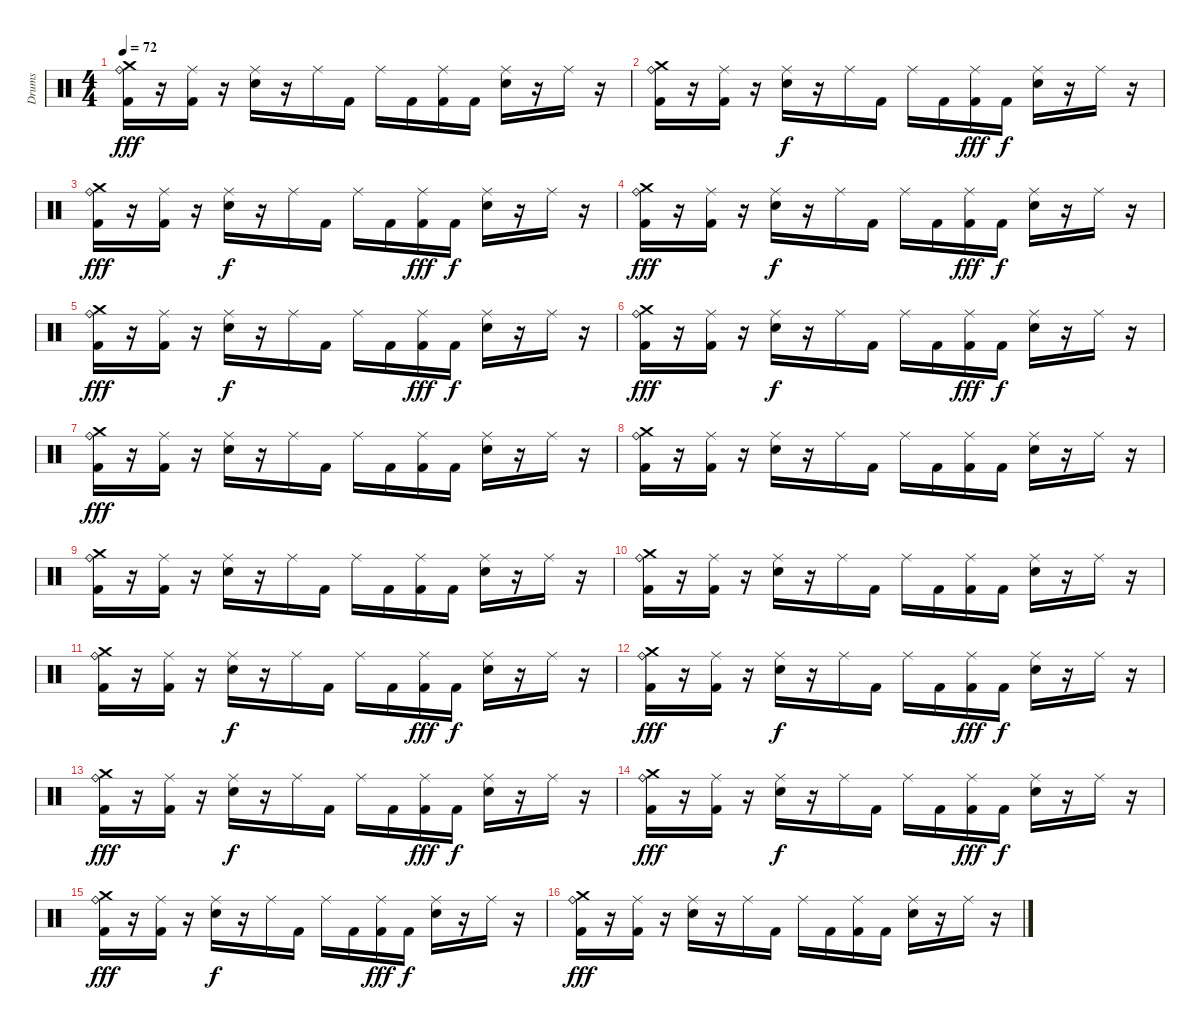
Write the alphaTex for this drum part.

\track ("Drums" "Drums") {instrument percussion}
\staff {score}
\articulation defaults
\ts (4 4)
\tempo 72
\clef neutral
\ks c
("Crash medium (hit)" "Ride (bell)" "Kick (hit) 2").16{dy fff} r.16 ("Ride (middle)" "Kick (hit) 2").16 r.16 ("Ride (middle)" "Snare (hit) 2").16 r.16 "Ride (middle)".16 "Kick (hit) 2".16 "Ride (middle)".16 "Kick (hit) 2".16 ("Ride (middle)" "Kick (hit) 2").16 "Kick (hit) 2".16 ("Ride (middle)" "Snare (hit) 2").16 r.16 "Ride (middle)".16 r.16 |
("Crash medium (hit)" "Ride (bell)" "Kick (hit) 2").16 r.16 ("Ride (middle)" "Kick (hit) 2").16 r.16 ("Ride (middle)" "Snare (hit) 2").16{dy f} r.16 "Ride (middle)".16 "Kick (hit) 2".16 "Ride (middle)".16 "Kick (hit) 2".16 ("Ride (middle)" "Kick (hit) 2").16{dy fff} "Kick (hit) 2".16{dy f} ("Ride (middle)" "Snare (hit) 2").16 r.16 "Ride (middle)".16 r.16 |
("Crash medium (hit)" "Ride (bell)" "Kick (hit) 2").16{dy fff} r.16 ("Ride (middle)" "Kick (hit) 2").16 r.16 ("Ride (middle)" "Snare (hit) 2").16{dy f} r.16 "Ride (middle)".16 "Kick (hit) 2".16 "Ride (middle)".16 "Kick (hit) 2".16 ("Ride (middle)" "Kick (hit) 2").16{dy fff} "Kick (hit) 2".16{dy f} ("Ride (middle)" "Snare (hit) 2").16 r.16 "Ride (middle)".16 r.16 |
("Crash medium (hit)" "Ride (bell)" "Kick (hit) 2").16{dy fff} r.16 ("Ride (middle)" "Kick (hit) 2").16 r.16 ("Ride (middle)" "Snare (hit) 2").16{dy f} r.16 "Ride (middle)".16 "Kick (hit) 2".16 "Ride (middle)".16 "Kick (hit) 2".16 ("Ride (middle)" "Kick (hit) 2").16{dy fff} "Kick (hit) 2".16{dy f} ("Ride (middle)" "Snare (hit) 2").16 r.16 "Ride (middle)".16 r.16 |
("Crash medium (hit)" "Ride (bell)" "Kick (hit) 2").16{dy fff} r.16 ("Ride (middle)" "Kick (hit) 2").16 r.16 ("Ride (middle)" "Snare (hit) 2").16{dy f} r.16 "Ride (middle)".16 "Kick (hit) 2".16 "Ride (middle)".16 "Kick (hit) 2".16 ("Ride (middle)" "Kick (hit) 2").16{dy fff} "Kick (hit) 2".16{dy f} ("Ride (middle)" "Snare (hit) 2").16 r.16 "Ride (middle)".16 r.16 |
("Crash medium (hit)" "Ride (bell)" "Kick (hit) 2").16{dy fff} r.16 ("Ride (middle)" "Kick (hit) 2").16 r.16 ("Ride (middle)" "Snare (hit) 2").16{dy f} r.16 "Ride (middle)".16 "Kick (hit) 2".16 "Ride (middle)".16 "Kick (hit) 2".16 ("Ride (middle)" "Kick (hit) 2").16{dy fff} "Kick (hit) 2".16{dy f} ("Ride (middle)" "Snare (hit) 2").16 r.16 "Ride (middle)".16 r.16 |
("Crash medium (hit)" "Ride (bell)" "Kick (hit) 2").16{dy fff} r.16 ("Ride (middle)" "Kick (hit) 2").16 r.16 ("Ride (middle)" "Snare (hit) 2").16 r.16 "Ride (middle)".16 "Kick (hit) 2".16 "Ride (middle)".16 "Kick (hit) 2".16 ("Ride (middle)" "Kick (hit) 2").16 "Kick (hit) 2".16 ("Ride (middle)" "Snare (hit) 2").16 r.16 "Ride (middle)".16 r.16 |
("Crash medium (hit)" "Ride (bell)" "Kick (hit) 2").16 r.16 ("Ride (middle)" "Kick (hit) 2").16 r.16 ("Ride (middle)" "Snare (hit) 2").16 r.16 "Ride (middle)".16 "Kick (hit) 2".16 "Ride (middle)".16 "Kick (hit) 2".16 ("Ride (middle)" "Kick (hit) 2").16 "Kick (hit) 2".16 ("Ride (middle)" "Snare (hit) 2").16 r.16 "Ride (middle)".16 r.16 |
("Crash medium (hit)" "Ride (bell)" "Kick (hit) 2").16 r.16 ("Ride (middle)" "Kick (hit) 2").16 r.16 ("Ride (middle)" "Snare (hit) 2").16 r.16 "Ride (middle)".16 "Kick (hit) 2".16 "Ride (middle)".16 "Kick (hit) 2".16 ("Ride (middle)" "Kick (hit) 2").16 "Kick (hit) 2".16 ("Ride (middle)" "Snare (hit) 2").16 r.16 "Ride (middle)".16 r.16 |
("Crash medium (hit)" "Ride (bell)" "Kick (hit) 2").16 r.16 ("Ride (middle)" "Kick (hit) 2").16 r.16 ("Ride (middle)" "Snare (hit) 2").16 r.16 "Ride (middle)".16 "Kick (hit) 2".16 "Ride (middle)".16 "Kick (hit) 2".16 ("Ride (middle)" "Kick (hit) 2").16 "Kick (hit) 2".16 ("Ride (middle)" "Snare (hit) 2").16 r.16 "Ride (middle)".16 r.16 |
("Crash medium (hit)" "Ride (bell)" "Kick (hit) 2").16 r.16 ("Ride (middle)" "Kick (hit) 2").16 r.16 ("Ride (middle)" "Snare (hit) 2").16{dy f} r.16 "Ride (middle)".16 "Kick (hit) 2".16 "Ride (middle)".16 "Kick (hit) 2".16 ("Ride (middle)" "Kick (hit) 2").16{dy fff} "Kick (hit) 2".16{dy f} ("Ride (middle)" "Snare (hit) 2").16 r.16 "Ride (middle)".16 r.16 |
("Crash medium (hit)" "Ride (bell)" "Kick (hit) 2").16{dy fff} r.16 ("Ride (middle)" "Kick (hit) 2").16 r.16 ("Ride (middle)" "Snare (hit) 2").16{dy f} r.16 "Ride (middle)".16 "Kick (hit) 2".16 "Ride (middle)".16 "Kick (hit) 2".16 ("Ride (middle)" "Kick (hit) 2").16{dy fff} "Kick (hit) 2".16{dy f} ("Ride (middle)" "Snare (hit) 2").16 r.16 "Ride (middle)".16 r.16 |
("Crash medium (hit)" "Ride (bell)" "Kick (hit) 2").16{dy fff} r.16 ("Ride (middle)" "Kick (hit) 2").16 r.16 ("Ride (middle)" "Snare (hit) 2").16{dy f} r.16 "Ride (middle)".16 "Kick (hit) 2".16 "Ride (middle)".16 "Kick (hit) 2".16 ("Ride (middle)" "Kick (hit) 2").16{dy fff} "Kick (hit) 2".16{dy f} ("Ride (middle)" "Snare (hit) 2").16 r.16 "Ride (middle)".16 r.16 |
("Crash medium (hit)" "Ride (bell)" "Kick (hit) 2").16{dy fff} r.16 ("Ride (middle)" "Kick (hit) 2").16 r.16 ("Ride (middle)" "Snare (hit) 2").16{dy f} r.16 "Ride (middle)".16 "Kick (hit) 2".16 "Ride (middle)".16 "Kick (hit) 2".16 ("Ride (middle)" "Kick (hit) 2").16{dy fff} "Kick (hit) 2".16{dy f} ("Ride (middle)" "Snare (hit) 2").16 r.16 "Ride (middle)".16 r.16 |
("Crash medium (hit)" "Ride (bell)" "Kick (hit) 2").16{dy fff} r.16 ("Ride (middle)" "Kick (hit) 2").16 r.16 ("Ride (middle)" "Snare (hit) 2").16{dy f} r.16 "Ride (middle)".16 "Kick (hit) 2".16 "Ride (middle)".16 "Kick (hit) 2".16 ("Ride (middle)" "Kick (hit) 2").16{dy fff} "Kick (hit) 2".16{dy f} ("Ride (middle)" "Snare (hit) 2").16 r.16 "Ride (middle)".16 r.16 |
("Crash medium (hit)" "Ride (bell)" "Kick (hit) 2").16{dy fff} r.16 ("Ride (middle)" "Kick (hit) 2").16 r.16 ("Ride (middle)" "Snare (hit) 2").16 r.16 "Ride (middle)".16 "Kick (hit) 2".16 "Ride (middle)".16 "Kick (hit) 2".16 ("Ride (middle)" "Kick (hit) 2").16 "Kick (hit) 2".16 ("Ride (middle)" "Snare (hit) 2").16 r.16 "Ride (middle)".16 r.16
